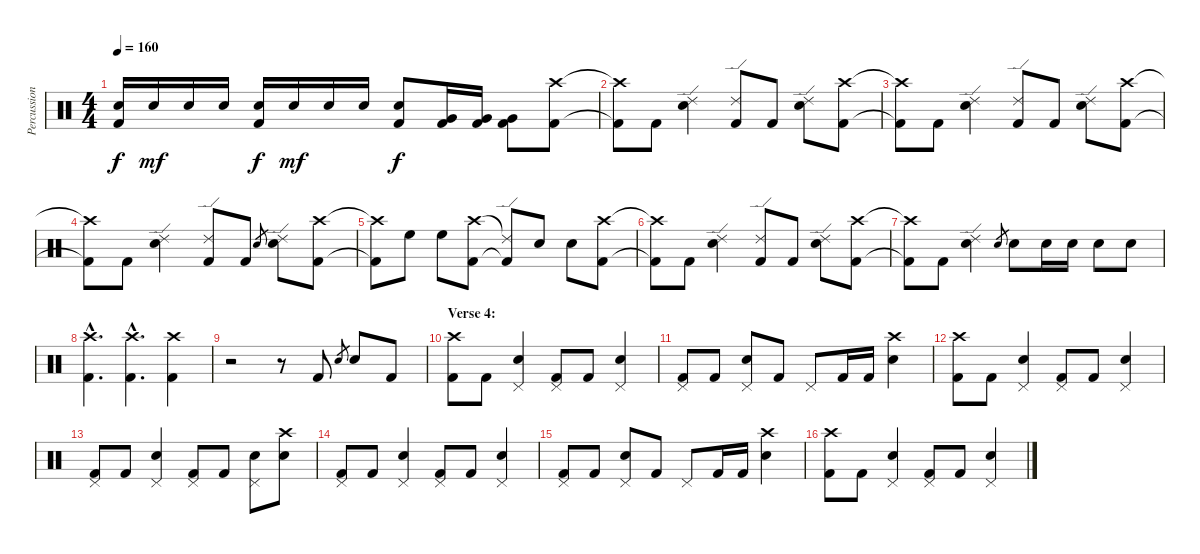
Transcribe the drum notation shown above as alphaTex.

\track ("Percussion" "Percussion") {instrument percussion}
\staff {score}
\articulation defaults
\ts (4 4)
\tempo 160
\clef neutral
\ks c
("Snare (hit) 2" "Kick (hit) 2").16{dy f} "Snare (hit) 2".16{dy mf} "Snare (hit) 2".16 "Snare (hit) 2".16 ("Snare (hit) 2" "Kick (hit) 2").16{dy f} "Snare (hit) 2".16{dy mf} "Snare (hit) 2".16 "Snare (hit) 2".16 ("Snare (hit) 2" "Kick (hit) 2").8{dy f} ("Very Low Tom (hit)" "Kick (hit) 2").16 ("Very Low Tom (hit)" "Kick (hit) 2").16 ("Very Low Tom (hit)" "Kick (hit) 2").8 ("Crash high (hit)" "Kick (hit) 2").8 |
("Crash high (hit)"{t} "Kick (hit) 2"{t}).8 "Kick (hit) 2".8 ("Ride (edge) 2" "Snare (hit) 2").4 ("Ride (edge) 2" "Kick (hit) 2").8 "Kick (hit) 2".8 ("Ride (edge) 2" "Snare (hit) 2").8 ("Crash high (hit)" "Kick (hit) 2").8 |
("Crash high (hit)"{t} "Kick (hit) 2"{t}).8 "Kick (hit) 2".8 ("Ride (edge) 2" "Snare (hit) 2").4 ("Ride (edge) 2" "Kick (hit) 2").8 "Kick (hit) 2".8 ("Ride (edge) 2" "Snare (hit) 2").8 ("Crash high (hit)" "Kick (hit) 2").8 |
("Crash high (hit)"{t} "Kick (hit) 2"{t}).8 "Kick (hit) 2".8 ("Ride (edge) 2" "Snare (hit) 2").4 ("Ride (edge) 2" "Kick (hit) 2").8 "Kick (hit) 2".8 "Snare (hit) 2".8{gr} ("Ride (edge) 2" "Snare (hit) 2").8 ("Crash high (hit)" "Kick (hit) 2").8 |
("Crash high (hit)"{t} "Kick (hit) 2"{t}).8 "High Floor Tom (hit)".8 "High Floor Tom (hit)".8 ("Crash high (hit)" "Kick (hit) 2").8 ("Ride (edge) 2"{t} "Kick (hit) 2"{t}).8 "Snare (hit) 2".8 "Snare (hit) 2".8 ("Crash high (hit)" "Kick (hit) 2").8 |
("Crash high (hit)"{t} "Kick (hit) 2"{t}).8 "Kick (hit) 2".8 ("Ride (edge) 2" "Snare (hit) 2").4 ("Ride (edge) 2" "Kick (hit) 2").8 "Kick (hit) 2".8 ("Ride (edge) 2" "Snare (hit) 2").8 ("Crash high (hit)" "Kick (hit) 2").8 |
("Crash high (hit)"{t} "Kick (hit) 2"{t}).8 "Kick (hit) 2".8 ("Ride (edge) 2" "Snare (hit) 2").4 "Snare (hit) 2".8{gr} "Snare (hit) 2".8 "Snare (hit) 2".16 "Snare (hit) 2".16 "Snare (hit) 2".8 "Snare (hit) 2".8 |
("Crash high (hit)"{hac} "Kick (hit) 2"{hac}).4{d} ("Crash high (hit)"{hac} "Kick (hit) 2"{hac}).4{d} ("Crash high (hit)" "Kick (hit) 2").4 |
r.2 r.8 "Kick (hit) 2".8 "Snare (hit) 2".8{gr} "Snare (hit) 2".8 "Kick (hit) 2".8 |
\section ("" "Verse 4:")
("Crash high (hit)" "Kick (hit) 2").8 "Kick (hit) 2".8 ("Pedal Hi-Hat (hit)" "Snare (hit) 2").4 ("Pedal Hi-Hat (hit)" "Kick (hit) 2").8 "Kick (hit) 2".8 ("Pedal Hi-Hat (hit)" "Snare (hit) 2").4 |
("Pedal Hi-Hat (hit)" "Kick (hit) 2").8 "Kick (hit) 2".8 ("Pedal Hi-Hat (hit)" "Snare (hit) 2").8 "Kick (hit) 2".8 "Pedal Hi-Hat (hit)".8 "Kick (hit) 2".16 "Kick (hit) 2".16 ("Crash high (hit)" "Snare (hit) 2").4 |
("Crash high (hit)" "Kick (hit) 2").8 "Kick (hit) 2".8 ("Pedal Hi-Hat (hit)" "Snare (hit) 2").4 ("Pedal Hi-Hat (hit)" "Kick (hit) 2").8 "Kick (hit) 2".8 ("Pedal Hi-Hat (hit)" "Snare (hit) 2").4 |
("Pedal Hi-Hat (hit)" "Kick (hit) 2").8 "Kick (hit) 2".8 ("Pedal Hi-Hat (hit)" "Snare (hit) 2").4 ("Pedal Hi-Hat (hit)" "Kick (hit) 2").8 "Kick (hit) 2".8 ("Pedal Hi-Hat (hit)" "Snare (hit) 2").8 ("Crash high (hit)" "Snare (hit) 2").8 |
("Pedal Hi-Hat (hit)" "Kick (hit) 2").8 "Kick (hit) 2".8 ("Pedal Hi-Hat (hit)" "Snare (hit) 2").4 ("Pedal Hi-Hat (hit)" "Kick (hit) 2").8 "Kick (hit) 2".8 ("Pedal Hi-Hat (hit)" "Snare (hit) 2").4 |
("Pedal Hi-Hat (hit)" "Kick (hit) 2").8 "Kick (hit) 2".8 ("Pedal Hi-Hat (hit)" "Snare (hit) 2").8 "Kick (hit) 2".8 "Pedal Hi-Hat (hit)".8 "Kick (hit) 2".16 "Kick (hit) 2".16 ("Crash high (hit)" "Snare (hit) 2").4 |
("Crash high (hit)" "Kick (hit) 2").8 "Kick (hit) 2".8 ("Pedal Hi-Hat (hit)" "Snare (hit) 2").4 ("Pedal Hi-Hat (hit)" "Kick (hit) 2").8 "Kick (hit) 2".8 ("Pedal Hi-Hat (hit)" "Snare (hit) 2").4
